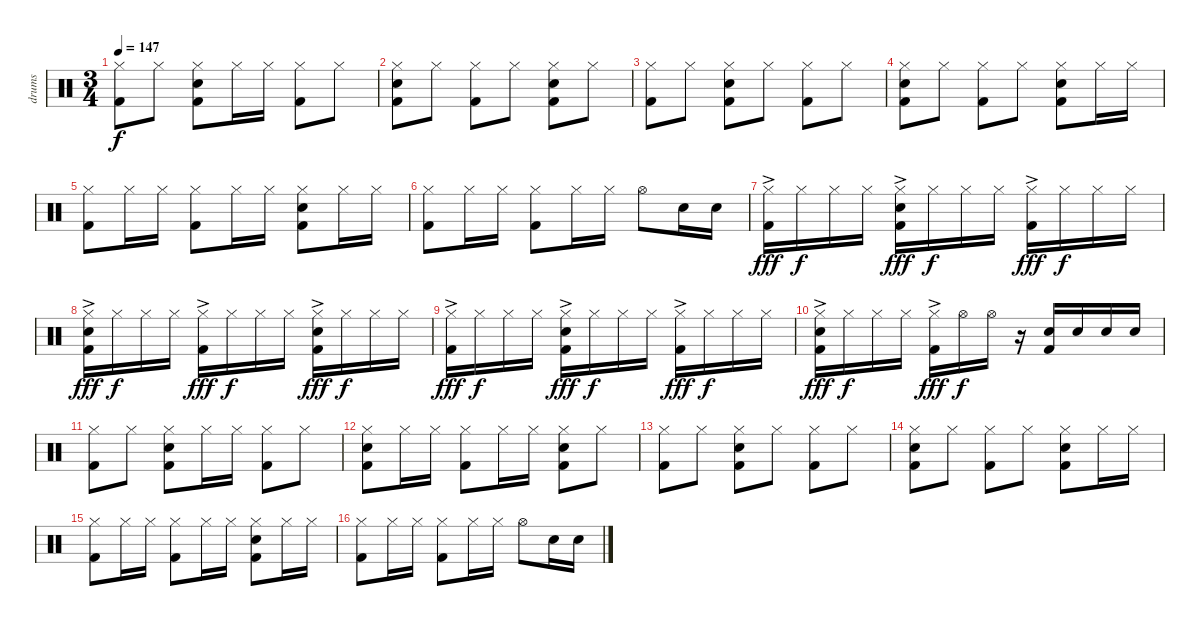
\track ("drums" "drums") {instrument percussion}
\staff {score}
\articulation defaults
\ts (3 4)
\tempo 147
\clef neutral
\ks c
("Hi-Hat (closed)" "Kick (hit) 2").8{dy f} "Hi-Hat (closed)".8 ("Hi-Hat (closed)" "Snare (hit) 2" "Kick (hit) 2").8 "Hi-Hat (closed)".16 "Hi-Hat (closed)".16 ("Hi-Hat (closed)" "Kick (hit) 2").8 "Hi-Hat (closed)".8 |
("Hi-Hat (closed)" "Snare (hit) 2" "Kick (hit) 2").8 "Hi-Hat (closed)".8 ("Hi-Hat (closed)" "Kick (hit) 2").8 "Hi-Hat (closed)".8 ("Hi-Hat (closed)" "Snare (hit) 2" "Kick (hit) 2").8 "Hi-Hat (closed)".8 |
("Hi-Hat (closed)" "Kick (hit) 2").8 "Hi-Hat (closed)".8 ("Hi-Hat (closed)" "Snare (hit) 2" "Kick (hit) 2").8 "Hi-Hat (closed)".8 ("Hi-Hat (closed)" "Kick (hit) 2").8 "Hi-Hat (closed)".8 |
("Hi-Hat (closed)" "Snare (hit) 2" "Kick (hit) 2").8 "Hi-Hat (closed)".8 ("Hi-Hat (closed)" "Kick (hit) 2").8 "Hi-Hat (closed)".8 ("Hi-Hat (closed)" "Snare (hit) 2" "Kick (hit) 2").8 "Hi-Hat (closed)".16 "Hi-Hat (closed)".16 |
("Hi-Hat (closed)" "Kick (hit) 2").8 "Hi-Hat (closed)".16 "Hi-Hat (closed)".16 ("Hi-Hat (closed)" "Kick (hit) 2").8 "Hi-Hat (closed)".16 "Hi-Hat (closed)".16 ("Hi-Hat (closed)" "Snare (hit) 2" "Kick (hit) 2").8 "Hi-Hat (closed)".16 "Hi-Hat (closed)".16 |
("Hi-Hat (closed)" "Kick (hit) 2").8 "Hi-Hat (closed)".16 "Hi-Hat (closed)".16 ("Hi-Hat (closed)" "Kick (hit) 2").8 "Hi-Hat (closed)".16 "Hi-Hat (closed)".16 "Hi-Hat (open)".8 "Snare (hit) 2".16 "Snare (hit) 2".16 |
("Hi-Hat (closed)"{ac} "Kick (hit) 2").16{dy fff} "Hi-Hat (closed)".16{dy f} "Hi-Hat (closed)".16 "Hi-Hat (closed)".16 ("Hi-Hat (closed)"{ac} "Snare (hit) 2" "Kick (hit) 2").16{dy fff} "Hi-Hat (closed)".16{dy f} "Hi-Hat (closed)".16 "Hi-Hat (closed)".16 ("Hi-Hat (closed)"{ac} "Kick (hit) 2").16{dy fff} "Hi-Hat (closed)".16{dy f} "Hi-Hat (closed)".16 "Hi-Hat (closed)".16 |
("Hi-Hat (closed)"{ac} "Snare (hit) 2" "Kick (hit) 2").16{dy fff} "Hi-Hat (closed)".16{dy f} "Hi-Hat (closed)".16 "Hi-Hat (closed)".16 ("Hi-Hat (closed)"{ac} "Kick (hit) 2").16{dy fff} "Hi-Hat (closed)".16{dy f} "Hi-Hat (closed)".16 "Hi-Hat (closed)".16 ("Hi-Hat (closed)"{ac} "Snare (hit) 2" "Kick (hit) 2").16{dy fff} "Hi-Hat (closed)".16{dy f} "Hi-Hat (closed)".16 "Hi-Hat (closed)".16 |
("Hi-Hat (closed)"{ac} "Kick (hit) 2").16{dy fff} "Hi-Hat (closed)".16{dy f} "Hi-Hat (closed)".16 "Hi-Hat (closed)".16 ("Hi-Hat (closed)"{ac} "Snare (hit) 2" "Kick (hit) 2").16{dy fff} "Hi-Hat (closed)".16{dy f} "Hi-Hat (closed)".16 "Hi-Hat (closed)".16 ("Hi-Hat (closed)"{ac} "Kick (hit) 2").16{dy fff} "Hi-Hat (closed)".16{dy f} "Hi-Hat (closed)".16 "Hi-Hat (closed)".16 |
("Hi-Hat (closed)"{ac} "Snare (hit) 2" "Kick (hit) 2").16{dy fff} "Hi-Hat (closed)".16{dy f} "Hi-Hat (closed)".16 "Hi-Hat (closed)".16 ("Hi-Hat (closed)"{ac} "Kick (hit) 2").16{dy fff} "Hi-Hat (open)".16{dy f} "Hi-Hat (open)".16 r.16 ("Snare (hit) 2" "Kick (hit) 2").16 "Snare (hit) 2".16 "Snare (hit) 2".16 "Snare (hit) 2".16 |
("Hi-Hat (closed)" "Kick (hit) 2").8 "Hi-Hat (closed)".8 ("Hi-Hat (closed)" "Snare (hit) 2" "Kick (hit) 2").8 "Hi-Hat (closed)".16 "Hi-Hat (closed)".16 ("Hi-Hat (closed)" "Kick (hit) 2").8 "Hi-Hat (closed)".8 |
("Hi-Hat (closed)" "Snare (hit) 2" "Kick (hit) 2").8 "Hi-Hat (closed)".16 "Hi-Hat (closed)".16 ("Hi-Hat (closed)" "Kick (hit) 2").8 "Hi-Hat (closed)".16 "Hi-Hat (closed)".16 ("Hi-Hat (closed)" "Snare (hit) 2" "Kick (hit) 2").8 "Hi-Hat (closed)".8 |
("Hi-Hat (closed)" "Kick (hit) 2").8 "Hi-Hat (closed)".8 ("Hi-Hat (closed)" "Snare (hit) 2" "Kick (hit) 2").8 "Hi-Hat (closed)".8 ("Hi-Hat (closed)" "Kick (hit) 2").8 "Hi-Hat (closed)".8 |
("Hi-Hat (closed)" "Snare (hit) 2" "Kick (hit) 2").8 "Hi-Hat (closed)".8 ("Hi-Hat (closed)" "Kick (hit) 2").8 "Hi-Hat (closed)".8 ("Hi-Hat (closed)" "Snare (hit) 2" "Kick (hit) 2").8 "Hi-Hat (closed)".16 "Hi-Hat (closed)".16 |
("Hi-Hat (closed)" "Kick (hit) 2").8 "Hi-Hat (closed)".16 "Hi-Hat (closed)".16 ("Hi-Hat (closed)" "Kick (hit) 2").8 "Hi-Hat (closed)".16 "Hi-Hat (closed)".16 ("Hi-Hat (closed)" "Snare (hit) 2" "Kick (hit) 2").8 "Hi-Hat (closed)".16 "Hi-Hat (closed)".16 |
("Hi-Hat (closed)" "Kick (hit) 2").8 "Hi-Hat (closed)".16 "Hi-Hat (closed)".16 ("Hi-Hat (closed)" "Kick (hit) 2").8 "Hi-Hat (closed)".16 "Hi-Hat (closed)".16 "Hi-Hat (open)".8 "Snare (hit) 2".16 "Snare (hit) 2".16
